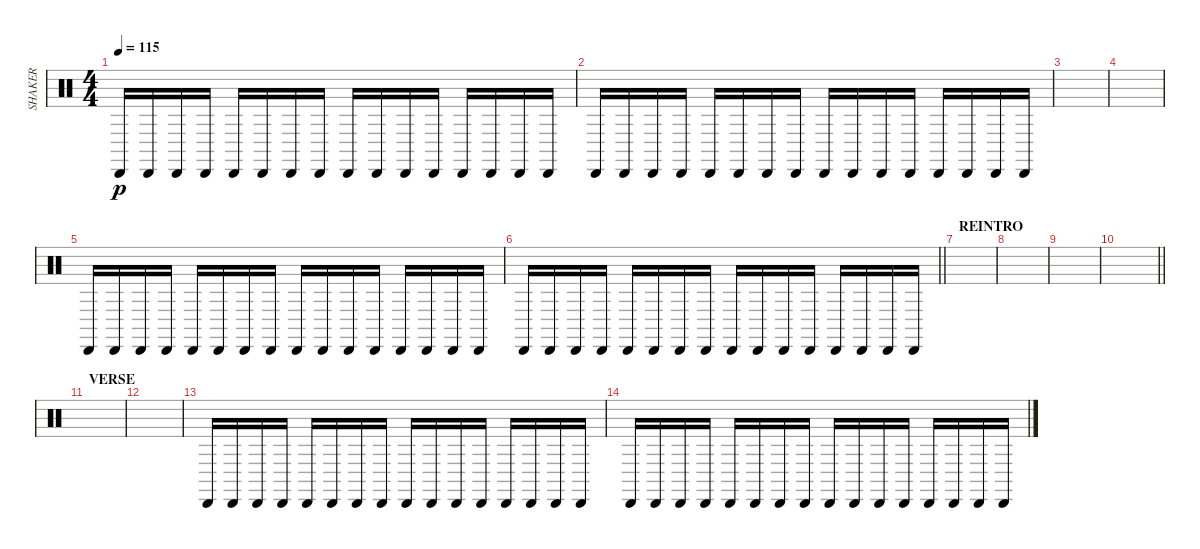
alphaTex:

\track ("SHAKER" "SHAKER") {instrument percussion}
\staff {score}
\articulation defaults
\ts (4 4)
\tempo 115
\clef neutral
\ks c "Cabasa (hit)".16{dy p} "Cabasa (hit)".16 "Cabasa (hit)".16 "Cabasa (hit)".16 "Cabasa (hit)".16 "Cabasa (hit)".16 "Cabasa (hit)".16 "Cabasa (hit)".16 "Cabasa (hit)".16 "Cabasa (hit)".16 "Cabasa (hit)".16 "Cabasa (hit)".16 "Cabasa (hit)".16 "Cabasa (hit)".16 "Cabasa (hit)".16 "Cabasa (hit)".16
|
"Cabasa (hit)".16 "Cabasa (hit)".16 "Cabasa (hit)".16 "Cabasa (hit)".16 "Cabasa (hit)".16 "Cabasa (hit)".16 "Cabasa (hit)".16 "Cabasa (hit)".16 "Cabasa (hit)".16 "Cabasa (hit)".16 "Cabasa (hit)".16 "Cabasa (hit)".16 "Cabasa (hit)".16 "Cabasa (hit)".16 "Cabasa (hit)".16 "Cabasa (hit)".16 |
|
|
"Cabasa (hit)".16 "Cabasa (hit)".16 "Cabasa (hit)".16 "Cabasa (hit)".16 "Cabasa (hit)".16 "Cabasa (hit)".16 "Cabasa (hit)".16 "Cabasa (hit)".16 "Cabasa (hit)".16 "Cabasa (hit)".16 "Cabasa (hit)".16 "Cabasa (hit)".16 "Cabasa (hit)".16 "Cabasa (hit)".16 "Cabasa (hit)".16 "Cabasa (hit)".16 |
\barLineRight lightlight "Cabasa (hit)".16 "Cabasa (hit)".16 "Cabasa (hit)".16 "Cabasa (hit)".16 "Cabasa (hit)".16 "Cabasa (hit)".16 "Cabasa (hit)".16 "Cabasa (hit)".16 "Cabasa (hit)".16 "Cabasa (hit)".16 "Cabasa (hit)".16 "Cabasa (hit)".16 "Cabasa (hit)".16 "Cabasa (hit)".16 "Cabasa (hit)".16 "Cabasa (hit)".16
|
\section ("" "REINTRO")
|
|
|
\barLineRight lightlight
|
\section ("" "VERSE")
|
|
"Cabasa (hit)".16 "Cabasa (hit)".16 "Cabasa (hit)".16 "Cabasa (hit)".16 "Cabasa (hit)".16 "Cabasa (hit)".16 "Cabasa (hit)".16 "Cabasa (hit)".16 "Cabasa (hit)".16 "Cabasa (hit)".16 "Cabasa (hit)".16 "Cabasa (hit)".16 "Cabasa (hit)".16 "Cabasa (hit)".16 "Cabasa (hit)".16 "Cabasa (hit)".16 |
"Cabasa (hit)".16 "Cabasa (hit)".16 "Cabasa (hit)".16 "Cabasa (hit)".16 "Cabasa (hit)".16 "Cabasa (hit)".16 "Cabasa (hit)".16 "Cabasa (hit)".16 "Cabasa (hit)".16 "Cabasa (hit)".16 "Cabasa (hit)".16 "Cabasa (hit)".16 "Cabasa (hit)".16 "Cabasa (hit)".16 "Cabasa (hit)".16 "Cabasa (hit)".16
